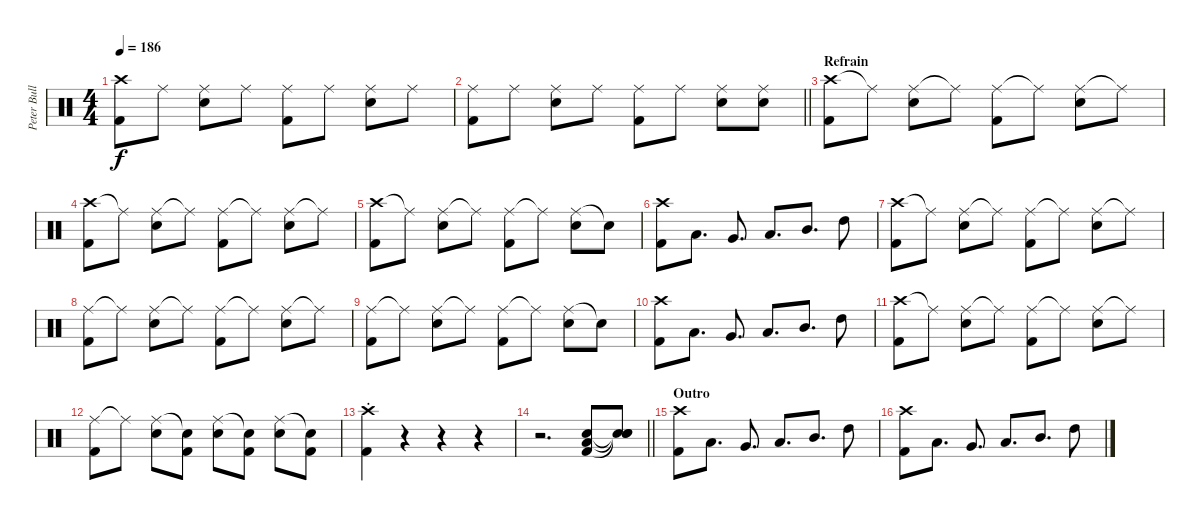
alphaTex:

\track ("Peter Bullrich" "Peter Bull") {instrument percussion}
\staff {score}
\articulation defaults
\ts (4 4)
\tempo 186
\clef neutral
\ks c
("Crash high (hit)" "Kick (hit) 2").8{dy f} "Ride (middle)".8 ("Ride (middle)" "Electric Snare (hit)").8 "Ride (middle)".8 ("Ride (middle)" "Kick (hit) 2").8 "Ride (middle)".8 ("Ride (middle)" "Electric Snare (hit)").8 "Ride (middle)".8 |
\barLineRight lightlight
("Ride (middle)" "Kick (hit) 2").8 "Ride (middle)".8 ("Ride (middle)" "Electric Snare (hit)").8 "Ride (middle)".8 ("Ride (middle)" "Kick (hit) 2").8 "Ride (middle)".8 ("Ride (middle)" "Electric Snare (hit)").8 ("Ride (middle)" "Electric Snare (hit)").8 |
\section ("" "Refrain")
("Crash high (hit)" "Kick (hit) 2").8 "Ride (middle)"{t}.8 ("Ride (middle)" "Electric Snare (hit)").8 "Ride (middle)"{t}.8 ("Ride (middle)" "Kick (hit) 2").8 "Ride (middle)"{t}.8 ("Ride (middle)" "Electric Snare (hit)").8 "Ride (middle)"{t}.8 |
("Crash high (hit)" "Kick (hit) 2").8 "Ride (middle)"{t}.8 ("Ride (middle)" "Electric Snare (hit)").8 "Ride (middle)"{t}.8 ("Ride (middle)" "Kick (hit) 2").8 "Ride (middle)"{t}.8 ("Ride (middle)" "Electric Snare (hit)").8 "Ride (middle)"{t}.8 |
("Crash high (hit)" "Kick (hit) 2").8 "Ride (middle)"{t}.8 ("Ride (middle)" "Electric Snare (hit)").8 "Ride (middle)"{t}.8 ("Ride (middle)" "Kick (hit) 2").8 "Ride (middle)"{t}.8 ("Ride (middle)" "Electric Snare (hit)").8 "Snare (hit)"{t}.8 |
("Crash high (hit)" "Kick (hit) 2").8 "Low Floor Tom (hit)".8{d} "Very Low Tom (hit)".8{d} "Low Tom (hit)".8{d} "Mid Tom (hit)".8{d} "High Tom (hit)".8 |
("Crash high (hit)" "Kick (hit) 2").8 "Ride (middle)"{t}.8 ("Ride (middle)" "Electric Snare (hit)").8 "Ride (middle)"{t}.8 ("Ride (middle)" "Kick (hit) 2").8 "Ride (middle)"{t}.8 ("Ride (middle)" "Electric Snare (hit)").8 "Ride (middle)"{t}.8 |
("Ride (middle)" "Kick (hit) 2").8 "Ride (middle)"{t}.8 ("Ride (middle)" "Electric Snare (hit)").8 "Ride (middle)"{t}.8 ("Ride (middle)" "Kick (hit) 2").8 "Ride (middle)"{t}.8 ("Ride (middle)" "Electric Snare (hit)").8 "Ride (middle)"{t}.8 |
("Ride (middle)" "Kick (hit) 2").8 "Ride (middle)"{t}.8 ("Ride (middle)" "Electric Snare (hit)").8 "Ride (middle)"{t}.8 ("Ride (middle)" "Kick (hit) 2").8 "Ride (middle)"{t}.8 ("Ride (middle)" "Electric Snare (hit)").8 "Snare (hit)"{t}.8 |
("Crash high (hit)" "Kick (hit) 2").8 "Low Floor Tom (hit)".8{d} "Very Low Tom (hit)".8{d} "Low Tom (hit)".8{d} "Mid Tom (hit)".8{d} "High Tom (hit)".8 |
("Crash high (hit)" "Kick (hit) 2").8 "Ride (middle)"{t}.8 ("Ride (middle)" "Electric Snare (hit)").8 "Ride (middle)"{t}.8 ("Ride (middle)" "Kick (hit) 2").8 "Ride (middle)"{t}.8 ("Ride (middle)" "Electric Snare (hit)").8 "Ride (middle)"{t}.8 |
("Ride (middle)" "Kick (hit) 2").8 "Ride (middle)"{t}.8 ("Ride (middle)" "Electric Snare (hit)").8 ("Snare (hit)"{t} "Kick (hit) 2").8 ("Ride (middle)" "Electric Snare (hit)").8 ("Snare (hit)"{t} "Kick (hit) 2").8 ("Ride (middle)" "Electric Snare (hit)").8 ("Snare (hit)"{t} "Kick (hit) 2").8 |
("Crash high (hit)"{st} "Kick (hit) 2"{st}).4 r.4 r.4 r.4 |
\barLineRight lightlight
r.2{d} ("Low Floor Tom (hit)" "Kick (hit) 2" "Electric Snare (hit)").8 ("Snare (hit)"{t} "Snare (hit)"{t} "Snare (hit)"{t}).8 |
\section ("" "Outro")
("Crash high (hit)" "Kick (hit) 2").8 "Low Floor Tom (hit)".8{d} "Very Low Tom (hit)".8{d} "Low Tom (hit)".8{d} "Mid Tom (hit)".8{d} "High Tom (hit)".8 |
("Crash high (hit)" "Kick (hit) 2").8 "Low Floor Tom (hit)".8{d} "Very Low Tom (hit)".8{d} "Low Tom (hit)".8{d} "Mid Tom (hit)".8{d} "High Tom (hit)".8
